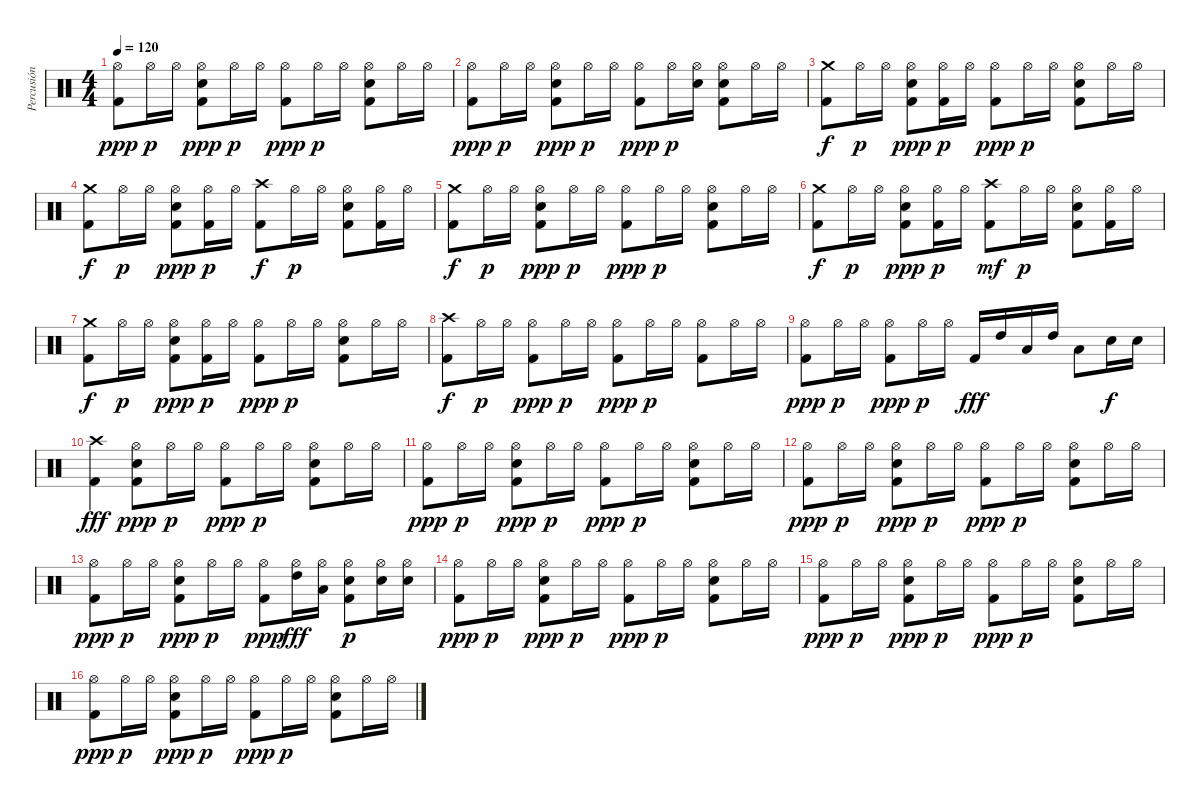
\track ("Percusión" "Percusión") {instrument percussion}
\staff {score}
\articulation defaults
\ts (4 4)
\tempo 120
\clef neutral
\ks c
("Hi-Hat (open)" "Kick (hit) 2").8{dy ppp} "Hi-Hat (open)".16{dy p} "Hi-Hat (open)".16 ("Hi-Hat (open)" "Kick (hit) 2" "Snare (hit) 2").8{dy ppp} "Hi-Hat (open)".16{dy p} "Hi-Hat (open)".16 ("Hi-Hat (open)" "Kick (hit) 2").8{dy ppp} "Hi-Hat (open)".16{dy p} "Hi-Hat (open)".16 ("Hi-Hat (open)" "Kick (hit) 2" "Snare (hit) 2").8 "Hi-Hat (open)".16 "Hi-Hat (open)".16 |
("Hi-Hat (open)" "Kick (hit) 2").8{dy ppp} "Hi-Hat (open)".16{dy p} "Hi-Hat (open)".16 ("Hi-Hat (open)" "Kick (hit) 2" "Snare (hit) 2").8{dy ppp} "Hi-Hat (open)".16{dy p} "Hi-Hat (open)".16 ("Hi-Hat (open)" "Kick (hit) 2").8{dy ppp} "Hi-Hat (open)".16{dy p} ("Hi-Hat (open)" "Snare (hit) 2").16 ("Hi-Hat (open)" "Kick (hit) 2" "Snare (hit) 2").8 "Hi-Hat (open)".16 "Hi-Hat (open)".16 |
("Crash medium (hit)" "Kick (hit) 2").8{dy f} "Hi-Hat (open)".16{dy p} "Hi-Hat (open)".16 ("Hi-Hat (open)" "Kick (hit) 2" "Snare (hit) 2").8{dy ppp} ("Hi-Hat (open)" "Kick (hit) 2").16{dy p} "Hi-Hat (open)".16 ("Hi-Hat (open)" "Kick (hit) 2").8{dy ppp} "Hi-Hat (open)".16{dy p} "Hi-Hat (open)".16 ("Hi-Hat (open)" "Kick (hit) 2" "Snare (hit) 2").8 "Hi-Hat (open)".16 "Hi-Hat (open)".16 |
("Crash medium (hit)" "Kick (hit) 2").8{dy f} "Hi-Hat (open)".16{dy p} "Hi-Hat (open)".16 ("Hi-Hat (open)" "Kick (hit) 2" "Snare (hit) 2").8{dy ppp} ("Hi-Hat (open)" "Kick (hit) 2").16{dy p} "Hi-Hat (open)".16 ("Crash high (hit)" "Kick (hit) 2").8{dy f} "Hi-Hat (open)".16{dy p} "Hi-Hat (open)".16 ("Hi-Hat (open)" "Kick (hit) 2" "Snare (hit) 2").8 ("Hi-Hat (open)" "Kick (hit) 2").16 "Hi-Hat (open)".16 |
("Crash medium (hit)" "Kick (hit) 2").8{dy f} "Hi-Hat (open)".16{dy p} "Hi-Hat (open)".16 ("Hi-Hat (open)" "Kick (hit) 2" "Snare (hit) 2").8{dy ppp} "Hi-Hat (open)".16{dy p} "Hi-Hat (open)".16 ("Hi-Hat (open)" "Kick (hit) 2").8{dy ppp} "Hi-Hat (open)".16{dy p} "Hi-Hat (open)".16 ("Hi-Hat (open)" "Kick (hit) 2" "Snare (hit) 2").8 "Hi-Hat (open)".16 "Hi-Hat (open)".16 |
("Crash medium (hit)" "Kick (hit) 2").8{dy f} "Hi-Hat (open)".16{dy p} "Hi-Hat (open)".16 ("Hi-Hat (open)" "Kick (hit) 2" "Snare (hit) 2").8{dy ppp} ("Hi-Hat (open)" "Kick (hit) 2").16{dy p} "Hi-Hat (open)".16 ("Crash high (hit)" "Kick (hit) 2").8{dy mf} "Hi-Hat (open)".16{dy p} "Hi-Hat (open)".16 ("Hi-Hat (open)" "Kick (hit) 2" "Snare (hit) 2").8 ("Hi-Hat (open)" "Kick (hit) 2").16 "Hi-Hat (open)".16 |
("Crash medium (hit)" "Kick (hit) 2").8{dy f} "Hi-Hat (open)".16{dy p} "Hi-Hat (open)".16 ("Hi-Hat (open)" "Kick (hit) 2" "Snare (hit) 2").8{dy ppp} ("Hi-Hat (open)" "Kick (hit) 2").16{dy p} "Hi-Hat (open)".16 ("Hi-Hat (open)" "Kick (hit) 2").8{dy ppp} "Hi-Hat (open)".16{dy p} "Hi-Hat (open)".16 ("Hi-Hat (open)" "Kick (hit) 2" "Snare (hit) 2").8 "Hi-Hat (open)".16 "Hi-Hat (open)".16 |
("Crash high (hit)" "Kick (hit) 2").8{dy f} "Hi-Hat (open)".16{dy p} "Hi-Hat (open)".16 ("Hi-Hat (open)" "Kick (hit) 2").8{dy ppp} "Hi-Hat (open)".16{dy p} "Hi-Hat (open)".16 ("Hi-Hat (open)" "Kick (hit) 2").8{dy ppp} "Hi-Hat (open)".16{dy p} "Hi-Hat (open)".16 ("Hi-Hat (open)" "Kick (hit) 2").8 "Hi-Hat (open)".16 "Hi-Hat (open)".16 |
("Hi-Hat (open)" "Kick (hit) 2").8{dy ppp} "Hi-Hat (open)".16{dy p} "Hi-Hat (open)".16 ("Hi-Hat (open)" "Kick (hit) 2").8{dy ppp} "Hi-Hat (open)".16{dy p} "Hi-Hat (open)".16 "Kick (hit) 2".16{dy fff} "High Tom (hit)".16 "Low Tom (hit)".16 "High Tom (hit)".16 "Low Tom (hit)".8 "Snare (hit) 2".16{dy f} "Snare (hit) 2".16 |
("Crash high (hit)" "Kick (hit) 2").4{dy fff} ("Hi-Hat (open)" "Kick (hit) 2" "Snare (hit) 2").8{dy ppp} "Hi-Hat (open)".16{dy p} "Hi-Hat (open)".16 ("Hi-Hat (open)" "Kick (hit) 2").8{dy ppp} "Hi-Hat (open)".16{dy p} "Hi-Hat (open)".16 ("Hi-Hat (open)" "Kick (hit) 2" "Snare (hit) 2").8 "Hi-Hat (open)".16 "Hi-Hat (open)".16 |
("Hi-Hat (open)" "Kick (hit) 2").8{dy ppp} "Hi-Hat (open)".16{dy p} "Hi-Hat (open)".16 ("Hi-Hat (open)" "Kick (hit) 2" "Snare (hit) 2").8{dy ppp} "Hi-Hat (open)".16{dy p} "Hi-Hat (open)".16 ("Hi-Hat (open)" "Kick (hit) 2").8{dy ppp} "Hi-Hat (open)".16{dy p} "Hi-Hat (open)".16 ("Hi-Hat (open)" "Kick (hit) 2" "Snare (hit) 2").8 "Hi-Hat (open)".16 "Hi-Hat (open)".16 |
("Hi-Hat (open)" "Kick (hit) 2").8{dy ppp} "Hi-Hat (open)".16{dy p} "Hi-Hat (open)".16 ("Hi-Hat (open)" "Kick (hit) 2" "Snare (hit) 2").8{dy ppp} "Hi-Hat (open)".16{dy p} "Hi-Hat (open)".16 ("Hi-Hat (open)" "Kick (hit) 2").8{dy ppp} "Hi-Hat (open)".16{dy p} "Hi-Hat (open)".16 ("Hi-Hat (open)" "Kick (hit) 2" "Snare (hit) 2").8 "Hi-Hat (open)".16 "Hi-Hat (open)".16 |
("Hi-Hat (open)" "Kick (hit) 2").8{dy ppp} "Hi-Hat (open)".16{dy p} "Hi-Hat (open)".16 ("Hi-Hat (open)" "Kick (hit) 2" "Snare (hit) 2").8{dy ppp} "Hi-Hat (open)".16{dy p} "Hi-Hat (open)".16 ("Hi-Hat (open)" "Kick (hit) 2").8{dy ppp} ("Hi-Hat (open)" "High Tom (hit)").16{dy fff} ("Hi-Hat (open)" "Low Tom (hit)").16 ("Hi-Hat (open)" "Kick (hit) 2" "Snare (hit) 2").8{dy p} ("Hi-Hat (open)" "Snare (hit) 2").16 ("Hi-Hat (open)" "Snare (hit) 2").16 |
("Hi-Hat (open)" "Kick (hit) 2").8{dy ppp} "Hi-Hat (open)".16{dy p} "Hi-Hat (open)".16 ("Hi-Hat (open)" "Kick (hit) 2" "Snare (hit) 2").8{dy ppp} "Hi-Hat (open)".16{dy p} "Hi-Hat (open)".16 ("Hi-Hat (open)" "Kick (hit) 2").8{dy ppp} "Hi-Hat (open)".16{dy p} "Hi-Hat (open)".16 ("Hi-Hat (open)" "Kick (hit) 2" "Snare (hit) 2").8 "Hi-Hat (open)".16 "Hi-Hat (open)".16 |
("Hi-Hat (open)" "Kick (hit) 2").8{dy ppp} "Hi-Hat (open)".16{dy p} "Hi-Hat (open)".16 ("Hi-Hat (open)" "Kick (hit) 2" "Snare (hit) 2").8{dy ppp} "Hi-Hat (open)".16{dy p} "Hi-Hat (open)".16 ("Hi-Hat (open)" "Kick (hit) 2").8{dy ppp} "Hi-Hat (open)".16{dy p} "Hi-Hat (open)".16 ("Hi-Hat (open)" "Kick (hit) 2" "Snare (hit) 2").8 "Hi-Hat (open)".16 "Hi-Hat (open)".16 |
("Hi-Hat (open)" "Kick (hit) 2").8{dy ppp} "Hi-Hat (open)".16{dy p} "Hi-Hat (open)".16 ("Hi-Hat (open)" "Kick (hit) 2" "Snare (hit) 2").8{dy ppp} "Hi-Hat (open)".16{dy p} "Hi-Hat (open)".16 ("Hi-Hat (open)" "Kick (hit) 2").8{dy ppp} "Hi-Hat (open)".16{dy p} "Hi-Hat (open)".16 ("Hi-Hat (open)" "Kick (hit) 2" "Snare (hit) 2").8 "Hi-Hat (open)".16 "Hi-Hat (open)".16
